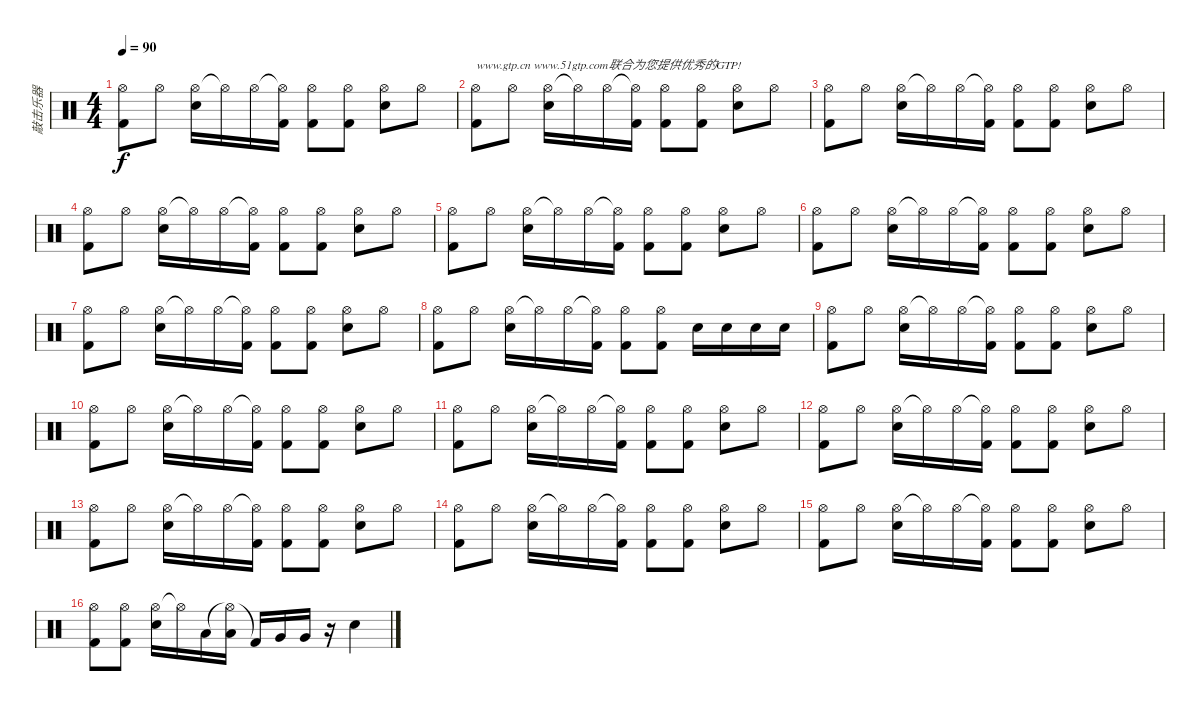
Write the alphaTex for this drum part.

\track ("敲击乐器" "敲击乐器") {instrument percussion}
\staff {score}
\articulation defaults
\ts (4 4)
\tempo 90
\clef neutral
\ks c
("Hi-Hat (open)" "Kick (hit) 2").8{dy f} "Hi-Hat (open)".8 ("Hi-Hat (open)" "Electric Snare (hit)").16 "Hi-Hat (open)"{t}.16 "Hi-Hat (open)".16 ("Hi-Hat (open)"{t} "Kick (hit) 2").16 ("Hi-Hat (open)" "Kick (hit) 2").8 ("Hi-Hat (open)" "Kick (hit) 2").8 ("Hi-Hat (open)" "Electric Snare (hit)").8 "Hi-Hat (open)".8 |
("Hi-Hat (open)" "Kick (hit) 2").8{txt "www.gtp.cn www.51gtp.com联合为您提供优秀的GTP!"} "Hi-Hat (open)".8 ("Hi-Hat (open)" "Electric Snare (hit)").16 "Hi-Hat (open)"{t}.16 "Hi-Hat (open)".16 ("Hi-Hat (open)"{t} "Kick (hit) 2").16 ("Hi-Hat (open)" "Kick (hit) 2").8 ("Hi-Hat (open)" "Kick (hit) 2").8 ("Hi-Hat (open)" "Electric Snare (hit)").8 "Hi-Hat (open)".8 |
("Hi-Hat (open)" "Kick (hit) 2").8 "Hi-Hat (open)".8 ("Hi-Hat (open)" "Electric Snare (hit)").16 "Hi-Hat (open)"{t}.16 "Hi-Hat (open)".16 ("Hi-Hat (open)"{t} "Kick (hit) 2").16 ("Hi-Hat (open)" "Kick (hit) 2").8 ("Hi-Hat (open)" "Kick (hit) 2").8 ("Hi-Hat (open)" "Electric Snare (hit)").8 "Hi-Hat (open)".8 |
("Hi-Hat (open)" "Kick (hit) 2").8 "Hi-Hat (open)".8 ("Hi-Hat (open)" "Electric Snare (hit)").16 "Hi-Hat (open)"{t}.16 "Hi-Hat (open)".16 ("Hi-Hat (open)"{t} "Kick (hit) 2").16 ("Hi-Hat (open)" "Kick (hit) 2").8 ("Hi-Hat (open)" "Kick (hit) 2").8 ("Hi-Hat (open)" "Electric Snare (hit)").8 "Hi-Hat (open)".8 |
("Hi-Hat (open)" "Kick (hit) 2").8 "Hi-Hat (open)".8 ("Hi-Hat (open)" "Electric Snare (hit)").16 "Hi-Hat (open)"{t}.16 "Hi-Hat (open)".16 ("Hi-Hat (open)"{t} "Kick (hit) 2").16 ("Hi-Hat (open)" "Kick (hit) 2").8 ("Hi-Hat (open)" "Kick (hit) 2").8 ("Hi-Hat (open)" "Electric Snare (hit)").8 "Hi-Hat (open)".8 |
("Hi-Hat (open)" "Kick (hit) 2").8 "Hi-Hat (open)".8 ("Hi-Hat (open)" "Electric Snare (hit)").16 "Hi-Hat (open)"{t}.16 "Hi-Hat (open)".16 ("Hi-Hat (open)"{t} "Kick (hit) 2").16 ("Hi-Hat (open)" "Kick (hit) 2").8 ("Hi-Hat (open)" "Kick (hit) 2").8 ("Hi-Hat (open)" "Electric Snare (hit)").8 "Hi-Hat (open)".8 |
("Hi-Hat (open)" "Kick (hit) 2").8 "Hi-Hat (open)".8 ("Hi-Hat (open)" "Electric Snare (hit)").16 "Hi-Hat (open)"{t}.16 "Hi-Hat (open)".16 ("Hi-Hat (open)"{t} "Kick (hit) 2").16 ("Hi-Hat (open)" "Kick (hit) 2").8 ("Hi-Hat (open)" "Kick (hit) 2").8 ("Hi-Hat (open)" "Electric Snare (hit)").8 "Hi-Hat (open)".8 |
("Hi-Hat (open)" "Kick (hit) 2").8 "Hi-Hat (open)".8 ("Hi-Hat (open)" "Electric Snare (hit)").16 "Hi-Hat (open)"{t}.16 "Hi-Hat (open)".16 ("Hi-Hat (open)"{t} "Kick (hit) 2").16 ("Hi-Hat (open)" "Kick (hit) 2").8 ("Hi-Hat (open)" "Kick (hit) 2").8 "Electric Snare (hit)".16 "Electric Snare (hit)".16 "Electric Snare (hit)".16 "Electric Snare (hit)".16 |
("Hi-Hat (open)" "Kick (hit) 2").8 "Hi-Hat (open)".8 ("Hi-Hat (open)" "Electric Snare (hit)").16 "Hi-Hat (open)"{t}.16 "Hi-Hat (open)".16 ("Hi-Hat (open)"{t} "Kick (hit) 2").16 ("Hi-Hat (open)" "Kick (hit) 2").8 ("Hi-Hat (open)" "Kick (hit) 2").8 ("Hi-Hat (open)" "Electric Snare (hit)").8 "Hi-Hat (open)".8 |
("Hi-Hat (open)" "Kick (hit) 2").8 "Hi-Hat (open)".8 ("Hi-Hat (open)" "Electric Snare (hit)").16 "Hi-Hat (open)"{t}.16 "Hi-Hat (open)".16 ("Hi-Hat (open)"{t} "Kick (hit) 2").16 ("Hi-Hat (open)" "Kick (hit) 2").8 ("Hi-Hat (open)" "Kick (hit) 2").8 ("Hi-Hat (open)" "Electric Snare (hit)").8 "Hi-Hat (open)".8 |
("Hi-Hat (open)" "Kick (hit) 2").8 "Hi-Hat (open)".8 ("Hi-Hat (open)" "Electric Snare (hit)").16 "Hi-Hat (open)"{t}.16 "Hi-Hat (open)".16 ("Hi-Hat (open)"{t} "Kick (hit) 2").16 ("Hi-Hat (open)" "Kick (hit) 2").8 ("Hi-Hat (open)" "Kick (hit) 2").8 ("Hi-Hat (open)" "Electric Snare (hit)").8 "Hi-Hat (open)".8 |
("Hi-Hat (open)" "Kick (hit) 2").8 "Hi-Hat (open)".8 ("Hi-Hat (open)" "Electric Snare (hit)").16 "Hi-Hat (open)"{t}.16 "Hi-Hat (open)".16 ("Hi-Hat (open)"{t} "Kick (hit) 2").16 ("Hi-Hat (open)" "Kick (hit) 2").8 ("Hi-Hat (open)" "Kick (hit) 2").8 ("Hi-Hat (open)" "Electric Snare (hit)").8 "Hi-Hat (open)".8 |
("Hi-Hat (open)" "Kick (hit) 2").8 "Hi-Hat (open)".8 ("Hi-Hat (open)" "Electric Snare (hit)").16 "Hi-Hat (open)"{t}.16 "Hi-Hat (open)".16 ("Hi-Hat (open)"{t} "Kick (hit) 2").16 ("Hi-Hat (open)" "Kick (hit) 2").8 ("Hi-Hat (open)" "Kick (hit) 2").8 ("Hi-Hat (open)" "Electric Snare (hit)").8 "Hi-Hat (open)".8 |
("Hi-Hat (open)" "Kick (hit) 2").8 "Hi-Hat (open)".8 ("Hi-Hat (open)" "Electric Snare (hit)").16 "Hi-Hat (open)"{t}.16 "Hi-Hat (open)".16 ("Hi-Hat (open)"{t} "Kick (hit) 2").16 ("Hi-Hat (open)" "Kick (hit) 2").8 ("Hi-Hat (open)" "Kick (hit) 2").8 ("Hi-Hat (open)" "Electric Snare (hit)").8 "Hi-Hat (open)".8 |
("Hi-Hat (open)" "Kick (hit) 2").8 "Hi-Hat (open)".8 ("Hi-Hat (open)" "Electric Snare (hit)").16 "Hi-Hat (open)"{t}.16 "Hi-Hat (open)".16 ("Hi-Hat (open)"{t} "Kick (hit) 2").16 ("Hi-Hat (open)" "Kick (hit) 2").8 ("Hi-Hat (open)" "Kick (hit) 2").8 ("Hi-Hat (open)" "Electric Snare (hit)").8 "Hi-Hat (open)".8 |
("Hi-Hat (open)" "Kick (hit) 2").8 ("Hi-Hat (open)" "Kick (hit) 2").8 ("Hi-Hat (open)" "Electric Snare (hit)").16 "Hi-Hat (open)"{t}.16 "Low Tom (hit)".16 ("Hi-Hat (open)"{t} "Low Tom (hit)").16 "Kick (hit) 2"{t}.16 "Very Low Tom (hit)".16 "Very Low Tom (hit)".16 r.16 "Electric Snare (hit)".4
